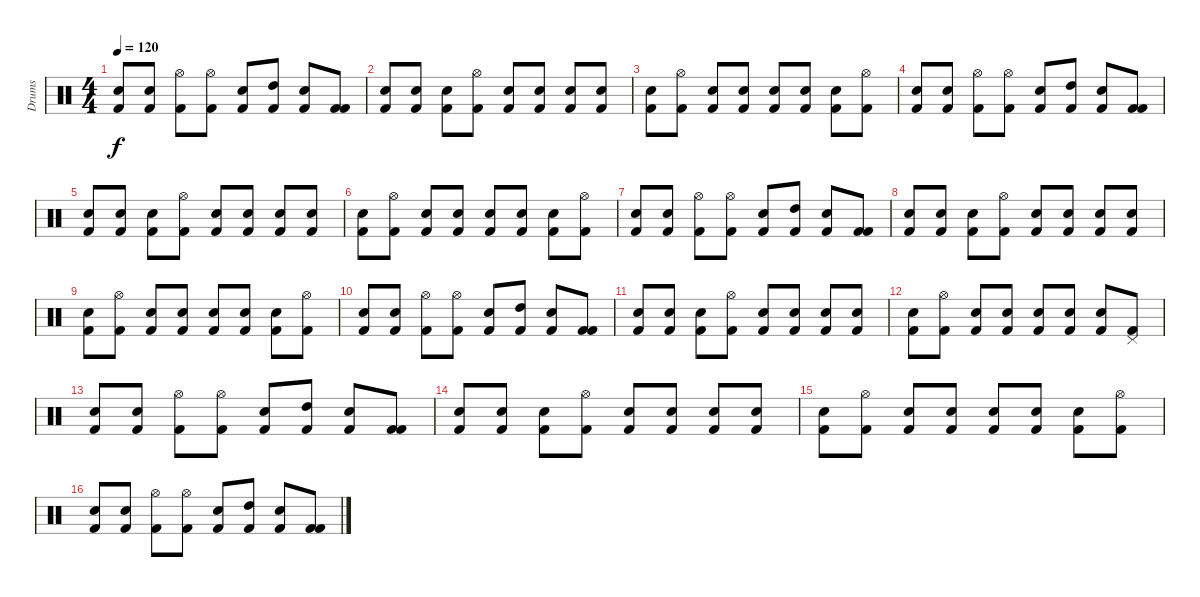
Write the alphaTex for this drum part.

\track ("Drums" "Drums") {instrument percussion}
\staff {score}
\articulation defaults
\ts (4 4)
\tempo 120
\clef neutral
\ks c
("Electric Snare (hit)" "Kick (hit) 2").8{dy f} ("Electric Snare (hit)" "Kick (hit) 2").8 ("Hi-Hat (open)" "Kick (hit) 2").8 ("Hi-Hat (open)" "Kick (hit) 2").8 ("Electric Snare (hit)" "Kick (hit) 2").8 ("High Tom (hit)" "Kick (hit) 2").8 ("Electric Snare (hit)" "Kick (hit) 2").8 ("Kick (hit) 2" "Kick (hit) 2").8 |
("Electric Snare (hit)" "Kick (hit) 2").8 ("Electric Snare (hit)" "Kick (hit) 2").8 ("Electric Snare (hit)" "Kick (hit) 2").8 ("Hi-Hat (open)" "Kick (hit) 2").8 ("Electric Snare (hit)" "Kick (hit) 2").8 ("Electric Snare (hit)" "Kick (hit) 2").8 ("Electric Snare (hit)" "Kick (hit) 2").8 ("Electric Snare (hit)" "Kick (hit) 2").8 |
("Electric Snare (hit)" "Kick (hit) 2").8 ("Hi-Hat (open)" "Kick (hit) 2").8 ("Electric Snare (hit)" "Kick (hit) 2").8 ("Electric Snare (hit)" "Kick (hit) 2").8 ("Electric Snare (hit)" "Kick (hit) 2").8 ("Electric Snare (hit)" "Kick (hit) 2").8 ("Electric Snare (hit)" "Kick (hit) 2").8 ("Hi-Hat (open)" "Kick (hit) 2").8 |
("Electric Snare (hit)" "Kick (hit) 2").8 ("Electric Snare (hit)" "Kick (hit) 2").8 ("Hi-Hat (open)" "Kick (hit) 2").8 ("Hi-Hat (open)" "Kick (hit) 2").8 ("Electric Snare (hit)" "Kick (hit) 2").8 ("High Tom (hit)" "Kick (hit) 2").8 ("Electric Snare (hit)" "Kick (hit) 2").8 ("Kick (hit) 2" "Kick (hit) 2").8 |
("Electric Snare (hit)" "Kick (hit) 2").8 ("Electric Snare (hit)" "Kick (hit) 2").8 ("Electric Snare (hit)" "Kick (hit) 2").8 ("Hi-Hat (open)" "Kick (hit) 2").8 ("Electric Snare (hit)" "Kick (hit) 2").8 ("Electric Snare (hit)" "Kick (hit) 2").8 ("Electric Snare (hit)" "Kick (hit) 2").8 ("Electric Snare (hit)" "Kick (hit) 2").8 |
("Electric Snare (hit)" "Kick (hit) 2").8 ("Hi-Hat (open)" "Kick (hit) 2").8 ("Electric Snare (hit)" "Kick (hit) 2").8 ("Electric Snare (hit)" "Kick (hit) 2").8 ("Electric Snare (hit)" "Kick (hit) 2").8 ("Electric Snare (hit)" "Kick (hit) 2").8 ("Electric Snare (hit)" "Kick (hit) 2").8 ("Hi-Hat (open)" "Kick (hit) 2").8 |
("Electric Snare (hit)" "Kick (hit) 2").8 ("Electric Snare (hit)" "Kick (hit) 2").8 ("Hi-Hat (open)" "Kick (hit) 2").8 ("Hi-Hat (open)" "Kick (hit) 2").8 ("Electric Snare (hit)" "Kick (hit) 2").8 ("High Tom (hit)" "Kick (hit) 2").8 ("Electric Snare (hit)" "Kick (hit) 2").8 ("Kick (hit) 2" "Kick (hit) 2").8 |
("Electric Snare (hit)" "Kick (hit) 2").8 ("Electric Snare (hit)" "Kick (hit) 2").8 ("Electric Snare (hit)" "Kick (hit) 2").8 ("Hi-Hat (open)" "Kick (hit) 2").8 ("Electric Snare (hit)" "Kick (hit) 2").8 ("Electric Snare (hit)" "Kick (hit) 2").8 ("Electric Snare (hit)" "Kick (hit) 2").8 ("Electric Snare (hit)" "Kick (hit) 2").8 |
("Electric Snare (hit)" "Kick (hit) 2").8 ("Hi-Hat (open)" "Kick (hit) 2").8 ("Electric Snare (hit)" "Kick (hit) 2").8 ("Electric Snare (hit)" "Kick (hit) 2").8 ("Electric Snare (hit)" "Kick (hit) 2").8 ("Electric Snare (hit)" "Kick (hit) 2").8 ("Electric Snare (hit)" "Kick (hit) 2").8 ("Hi-Hat (open)" "Kick (hit) 2").8 |
("Electric Snare (hit)" "Kick (hit) 2").8 ("Electric Snare (hit)" "Kick (hit) 2").8 ("Hi-Hat (open)" "Kick (hit) 2").8 ("Hi-Hat (open)" "Kick (hit) 2").8 ("Electric Snare (hit)" "Kick (hit) 2").8 ("High Tom (hit)" "Kick (hit) 2").8 ("Electric Snare (hit)" "Kick (hit) 2").8 ("Kick (hit) 2" "Kick (hit) 2").8 |
("Electric Snare (hit)" "Kick (hit) 2").8 ("Electric Snare (hit)" "Kick (hit) 2").8 ("Electric Snare (hit)" "Kick (hit) 2").8 ("Hi-Hat (open)" "Kick (hit) 2").8 ("Electric Snare (hit)" "Kick (hit) 2").8 ("Electric Snare (hit)" "Kick (hit) 2").8 ("Electric Snare (hit)" "Kick (hit) 2").8 ("Electric Snare (hit)" "Kick (hit) 2").8 |
("Electric Snare (hit)" "Kick (hit) 2").8 ("Hi-Hat (open)" "Kick (hit) 2").8 ("Electric Snare (hit)" "Kick (hit) 2").8 ("Electric Snare (hit)" "Kick (hit) 2").8 ("Electric Snare (hit)" "Kick (hit) 2").8 ("Electric Snare (hit)" "Kick (hit) 2").8 ("Electric Snare (hit)" "Kick (hit) 2").8 ("Pedal Hi-Hat (hit)" "Kick (hit) 2").8 |
("Electric Snare (hit)" "Kick (hit) 2").8 ("Electric Snare (hit)" "Kick (hit) 2").8 ("Hi-Hat (open)" "Kick (hit) 2").8 ("Hi-Hat (open)" "Kick (hit) 2").8 ("Electric Snare (hit)" "Kick (hit) 2").8 ("High Tom (hit)" "Kick (hit) 2").8 ("Electric Snare (hit)" "Kick (hit) 2").8 ("Kick (hit) 2" "Kick (hit) 2").8 |
("Electric Snare (hit)" "Kick (hit) 2").8 ("Electric Snare (hit)" "Kick (hit) 2").8 ("Electric Snare (hit)" "Kick (hit) 2").8 ("Hi-Hat (open)" "Kick (hit) 2").8 ("Electric Snare (hit)" "Kick (hit) 2").8 ("Electric Snare (hit)" "Kick (hit) 2").8 ("Electric Snare (hit)" "Kick (hit) 2").8 ("Electric Snare (hit)" "Kick (hit) 2").8 |
("Electric Snare (hit)" "Kick (hit) 2").8 ("Hi-Hat (open)" "Kick (hit) 2").8 ("Electric Snare (hit)" "Kick (hit) 2").8 ("Electric Snare (hit)" "Kick (hit) 2").8 ("Electric Snare (hit)" "Kick (hit) 2").8 ("Electric Snare (hit)" "Kick (hit) 2").8 ("Electric Snare (hit)" "Kick (hit) 2").8 ("Hi-Hat (open)" "Kick (hit) 2").8 |
("Electric Snare (hit)" "Kick (hit) 2").8 ("Electric Snare (hit)" "Kick (hit) 2").8 ("Hi-Hat (open)" "Kick (hit) 2").8 ("Hi-Hat (open)" "Kick (hit) 2").8 ("Electric Snare (hit)" "Kick (hit) 2").8 ("High Tom (hit)" "Kick (hit) 2").8 ("Electric Snare (hit)" "Kick (hit) 2").8 ("Kick (hit) 2" "Kick (hit) 2").8
